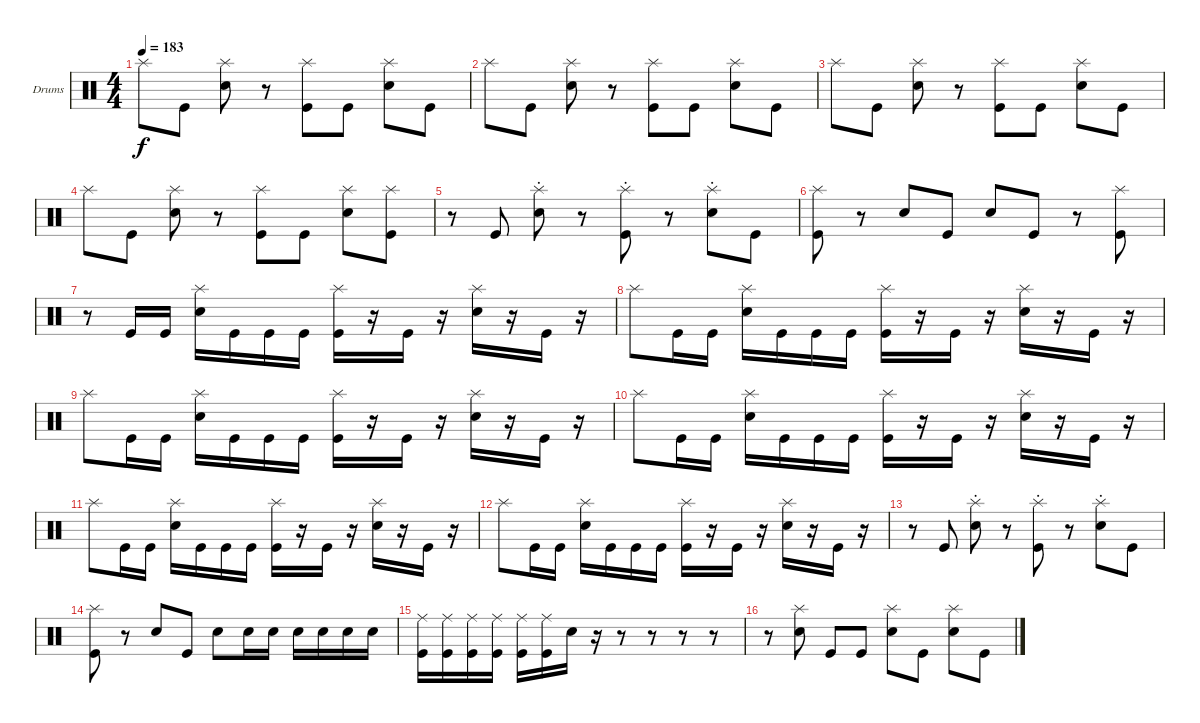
\bracketExtendMode groupsimilarinstruments
\firstSystemTrackNameOrientation horizontal
\otherSystemsTrackNameOrientation horizontal
\track ("Drumkit" "Drums") {instrument percussion}
\staff {score}
\articulation defaults
\ts (4 4)
\tempo 183
\clef neutral
\ks c "Splash (hit)".8{dy f} "Kick (hit)".8
("Snare (hit) 2" "Splash (hit)").8 r.8 ("Kick (hit)" "Splash (hit)").8 "Kick (hit)".8 ("Snare (hit) 2" "Splash (hit)").8 "Kick (hit)".8 |
"Splash (hit)".8 "Kick (hit)".8 ("Snare (hit) 2" "Splash (hit)").8 r.8 ("Kick (hit)" "Splash (hit)").8 "Kick (hit)".8 ("Snare (hit) 2" "Splash (hit)").8 "Kick (hit)".8 |
"Splash (hit)".8 "Kick (hit)".8 ("Snare (hit) 2" "Splash (hit)").8 r.8 ("Kick (hit)" "Splash (hit)").8 "Kick (hit)".8 ("Snare (hit) 2" "Splash (hit)").8 "Kick (hit)".8 |
"Splash (hit)".8 "Kick (hit)".8 ("Snare (hit) 2" "Splash (hit)").8 r.8 ("Kick (hit)" "Splash (hit)").8 "Kick (hit)".8 ("Snare (hit) 2" "Splash (hit)").8 ("Kick (hit)" "Splash (hit)").8 |
r.8 "Kick (hit)".8 ("Snare (hit) 2" "Splash (hit)"{st}).8 r.8 ("Kick (hit)" "Splash (hit)"{st}).8 r.8 ("Snare (hit) 2" "Splash (hit)"{st}).8 "Kick (hit)".8 |
("Kick (hit)" "Splash (hit)").8 r.8 "Snare (hit) 2".8 "Kick (hit)".8 "Snare (hit) 2".8 "Kick (hit)".8 r.8 ("Kick (hit)" "Splash (hit)").8 |
r.8 "Kick (hit)".16 "Kick (hit)".16 ("Snare (hit) 2" "Splash (hit)").16 "Kick (hit)".16 "Kick (hit)".16 "Kick (hit)".16 ("Kick (hit)" "Splash (hit)").16 r.16 "Kick (hit)".16 r.16 ("Snare (hit) 2" "Splash (hit)").16 r.16 "Kick (hit)".16 r.16 |
"Splash (hit)".8 "Kick (hit)".16 "Kick (hit)".16 ("Snare (hit) 2" "Splash (hit)").16 "Kick (hit)".16 "Kick (hit)".16 "Kick (hit)".16 ("Kick (hit)" "Splash (hit)").16 r.16 "Kick (hit)".16 r.16 ("Snare (hit) 2" "Splash (hit)").16 r.16 "Kick (hit)".16 r.16 |
"Splash (hit)".8 "Kick (hit)".16 "Kick (hit)".16 ("Snare (hit) 2" "Splash (hit)").16 "Kick (hit)".16 "Kick (hit)".16 "Kick (hit)".16 ("Kick (hit)" "Splash (hit)").16 r.16 "Kick (hit)".16 r.16 ("Snare (hit) 2" "Splash (hit)").16 r.16 "Kick (hit)".16 r.16 |
"Splash (hit)".8 "Kick (hit)".16 "Kick (hit)".16 ("Snare (hit) 2" "Splash (hit)").16 "Kick (hit)".16 "Kick (hit)".16 "Kick (hit)".16 ("Kick (hit)" "Splash (hit)").16 r.16 "Kick (hit)".16 r.16 ("Snare (hit) 2" "Splash (hit)").16 r.16 "Kick (hit)".16 r.16 |
"Splash (hit)".8 "Kick (hit)".16 "Kick (hit)".16 ("Snare (hit) 2" "Splash (hit)").16 "Kick (hit)".16 "Kick (hit)".16 "Kick (hit)".16 ("Kick (hit)" "Splash (hit)").16 r.16 "Kick (hit)".16 r.16 ("Snare (hit) 2" "Splash (hit)").16 r.16 "Kick (hit)".16 r.16 |
"Splash (hit)".8 "Kick (hit)".16 "Kick (hit)".16 ("Snare (hit) 2" "Splash (hit)").16 "Kick (hit)".16 "Kick (hit)".16 "Kick (hit)".16 ("Kick (hit)" "Splash (hit)").16 r.16 "Kick (hit)".16 r.16 ("Snare (hit) 2" "Splash (hit)").16 r.16 "Kick (hit)".16 r.16 |
r.8 "Kick (hit)".8 ("Snare (hit) 2" "Splash (hit)"{st}).8 r.8 ("Kick (hit)" "Splash (hit)"{st}).8 r.8 ("Snare (hit) 2" "Splash (hit)"{st}).8 "Kick (hit)".8 |
("Kick (hit)" "Splash (hit)").8 r.8 "Snare (hit) 2".8 "Kick (hit)".8 "Snare (hit) 2".8 "Snare (hit) 2".16 "Snare (hit) 2".16 "Snare (hit) 2".16 "Snare (hit) 2".16 "Snare (hit) 2".16 "Snare (hit) 2".16 |
("Kick (hit)" "Ride (middle)").16 ("Kick (hit)" "Ride (middle)").16 ("Kick (hit)" "Ride (middle)").16 ("Kick (hit)" "Ride (middle)").16 ("Kick (hit)" "Ride (middle)").16 ("Kick (hit)" "Ride (middle)").16 "Snare (hit) 2".16 r.16 r.8 r.8 r.8 r.8 |
r.8 ("Snare (hit) 2" "Splash (hit)").8 "Kick (hit)".8 "Kick (hit)".8 ("Snare (hit) 2" "Splash (hit)").8 "Kick (hit)".8 ("Snare (hit) 2" "Splash (hit)").8 "Kick (hit)".8
